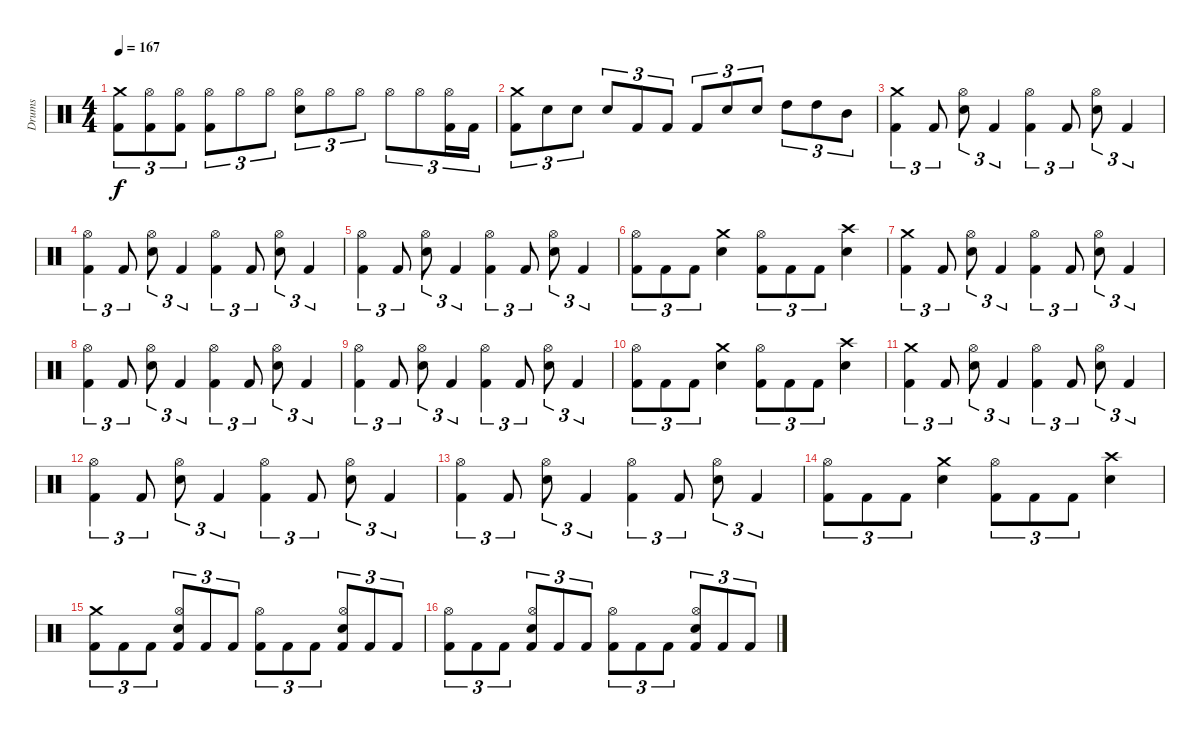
\track ("Drums" "Drums") {instrument percussion}
\staff {score}
\articulation defaults
\ts (4 4)
\tempo 167
\clef neutral
\ks c
("Kick (hit) 2" "Crash medium (hit)").8{tu (3 2) dy f} ("Kick (hit) 2" "Hi-Hat (open)").8{tu (3 2)} ("Kick (hit) 2" "Hi-Hat (open)").8{tu (3 2)} ("Kick (hit) 2" "Hi-Hat (open)").8{tu (3 2)} "Hi-Hat (open)".8{tu (3 2)} "Hi-Hat (open)".8{tu (3 2)} ("Electric Snare (hit)" "Hi-Hat (open)").8{tu (3 2)} "Hi-Hat (open)".8{tu (3 2)} "Hi-Hat (open)".8{tu (3 2)} "Hi-Hat (open)".8{tu (3 2)} "Hi-Hat (open)".8{tu (3 2)} ("Kick (hit) 2" "Hi-Hat (open)").16{tu (3 2)} "Kick (hit) 2".16{tu (3 2)} |
("Kick (hit) 2" "Crash medium (hit)").8{tu (3 2)} "Electric Snare (hit)".8{tu (3 2)} "Electric Snare (hit)".8{tu (3 2)} "Electric Snare (hit)".8{tu (3 2)} "Kick (hit) 2".8{tu (3 2)} "Kick (hit) 2".8{tu (3 2)} "Kick (hit) 2".8{tu (3 2)} "Electric Snare (hit)".8{tu (3 2)} "Electric Snare (hit)".8{tu (3 2)} "High Tom (hit)".8{tu (3 2)} "High Tom (hit)".8{tu (3 2)} "Mid Tom (hit)".8{tu (3 2)} |
("Kick (hit) 2" "Crash medium (hit)").4{tu (3 2)} "Kick (hit) 2".8{tu (3 2)} ("Electric Snare (hit)" "Hi-Hat (open)").8{tu (3 2)} "Kick (hit) 2".4{tu (3 2)} ("Kick (hit) 2" "Hi-Hat (open)").4{tu (3 2)} "Kick (hit) 2".8{tu (3 2)} ("Electric Snare (hit)" "Hi-Hat (open)").8{tu (3 2)} "Kick (hit) 2".4{tu (3 2)} |
("Kick (hit) 2" "Hi-Hat (open)").4{tu (3 2)} "Kick (hit) 2".8{tu (3 2)} ("Electric Snare (hit)" "Hi-Hat (open)").8{tu (3 2)} "Kick (hit) 2".4{tu (3 2)} ("Kick (hit) 2" "Hi-Hat (open)").4{tu (3 2)} "Kick (hit) 2".8{tu (3 2)} ("Electric Snare (hit)" "Hi-Hat (open)").8{tu (3 2)} "Kick (hit) 2".4{tu (3 2)} |
("Kick (hit) 2" "Hi-Hat (open)").4{tu (3 2)} "Kick (hit) 2".8{tu (3 2)} ("Electric Snare (hit)" "Hi-Hat (open)").8{tu (3 2)} "Kick (hit) 2".4{tu (3 2)} ("Kick (hit) 2" "Hi-Hat (open)").4{tu (3 2)} "Kick (hit) 2".8{tu (3 2)} ("Electric Snare (hit)" "Hi-Hat (open)").8{tu (3 2)} "Kick (hit) 2".4{tu (3 2)} |
("Kick (hit) 2" "Hi-Hat (open)").8{tu (3 2)} "Kick (hit) 2".8{tu (3 2)} "Kick (hit) 2".8{tu (3 2)} ("Electric Snare (hit)" "Crash medium (hit)").4 ("Kick (hit) 2" "Hi-Hat (open)").8{tu (3 2)} "Kick (hit) 2".8{tu (3 2)} "Kick (hit) 2".8{tu (3 2)} ("Electric Snare (hit)" "Crash high (hit)").4 |
("Kick (hit) 2" "Crash medium (hit)").4{tu (3 2)} "Kick (hit) 2".8{tu (3 2)} ("Electric Snare (hit)" "Hi-Hat (open)").8{tu (3 2)} "Kick (hit) 2".4{tu (3 2)} ("Kick (hit) 2" "Hi-Hat (open)").4{tu (3 2)} "Kick (hit) 2".8{tu (3 2)} ("Electric Snare (hit)" "Hi-Hat (open)").8{tu (3 2)} "Kick (hit) 2".4{tu (3 2)} |
("Kick (hit) 2" "Hi-Hat (open)").4{tu (3 2)} "Kick (hit) 2".8{tu (3 2)} ("Electric Snare (hit)" "Hi-Hat (open)").8{tu (3 2)} "Kick (hit) 2".4{tu (3 2)} ("Kick (hit) 2" "Hi-Hat (open)").4{tu (3 2)} "Kick (hit) 2".8{tu (3 2)} ("Electric Snare (hit)" "Hi-Hat (open)").8{tu (3 2)} "Kick (hit) 2".4{tu (3 2)} |
("Kick (hit) 2" "Hi-Hat (open)").4{tu (3 2)} "Kick (hit) 2".8{tu (3 2)} ("Electric Snare (hit)" "Hi-Hat (open)").8{tu (3 2)} "Kick (hit) 2".4{tu (3 2)} ("Kick (hit) 2" "Hi-Hat (open)").4{tu (3 2)} "Kick (hit) 2".8{tu (3 2)} ("Electric Snare (hit)" "Hi-Hat (open)").8{tu (3 2)} "Kick (hit) 2".4{tu (3 2)} |
("Kick (hit) 2" "Hi-Hat (open)").8{tu (3 2)} "Kick (hit) 2".8{tu (3 2)} "Kick (hit) 2".8{tu (3 2)} ("Electric Snare (hit)" "Crash medium (hit)").4 ("Kick (hit) 2" "Hi-Hat (open)").8{tu (3 2)} "Kick (hit) 2".8{tu (3 2)} "Kick (hit) 2".8{tu (3 2)} ("Electric Snare (hit)" "Crash high (hit)").4 |
("Kick (hit) 2" "Crash medium (hit)").4{tu (3 2)} "Kick (hit) 2".8{tu (3 2)} ("Electric Snare (hit)" "Hi-Hat (open)").8{tu (3 2)} "Kick (hit) 2".4{tu (3 2)} ("Kick (hit) 2" "Hi-Hat (open)").4{tu (3 2)} "Kick (hit) 2".8{tu (3 2)} ("Electric Snare (hit)" "Hi-Hat (open)").8{tu (3 2)} "Kick (hit) 2".4{tu (3 2)} |
("Kick (hit) 2" "Hi-Hat (open)").4{tu (3 2)} "Kick (hit) 2".8{tu (3 2)} ("Electric Snare (hit)" "Hi-Hat (open)").8{tu (3 2)} "Kick (hit) 2".4{tu (3 2)} ("Kick (hit) 2" "Hi-Hat (open)").4{tu (3 2)} "Kick (hit) 2".8{tu (3 2)} ("Electric Snare (hit)" "Hi-Hat (open)").8{tu (3 2)} "Kick (hit) 2".4{tu (3 2)} |
("Kick (hit) 2" "Hi-Hat (open)").4{tu (3 2)} "Kick (hit) 2".8{tu (3 2)} ("Electric Snare (hit)" "Hi-Hat (open)").8{tu (3 2)} "Kick (hit) 2".4{tu (3 2)} ("Kick (hit) 2" "Hi-Hat (open)").4{tu (3 2)} "Kick (hit) 2".8{tu (3 2)} ("Electric Snare (hit)" "Hi-Hat (open)").8{tu (3 2)} "Kick (hit) 2".4{tu (3 2)} |
("Kick (hit) 2" "Hi-Hat (open)").8{tu (3 2)} "Kick (hit) 2".8{tu (3 2)} "Kick (hit) 2".8{tu (3 2)} ("Electric Snare (hit)" "Crash medium (hit)").4 ("Kick (hit) 2" "Hi-Hat (open)").8{tu (3 2)} "Kick (hit) 2".8{tu (3 2)} "Kick (hit) 2".8{tu (3 2)} ("Electric Snare (hit)" "Crash high (hit)").4 |
("Kick (hit) 2" "Crash medium (hit)").8{tu (3 2)} "Kick (hit) 2".8{tu (3 2)} "Kick (hit) 2".8{tu (3 2)} ("Kick (hit) 2" "Electric Snare (hit)" "Hi-Hat (open)").8{tu (3 2)} "Kick (hit) 2".8{tu (3 2)} "Kick (hit) 2".8{tu (3 2)} ("Kick (hit) 2" "Hi-Hat (open)").8{tu (3 2)} "Kick (hit) 2".8{tu (3 2)} "Kick (hit) 2".8{tu (3 2)} ("Kick (hit) 2" "Electric Snare (hit)" "Hi-Hat (open)").8{tu (3 2)} "Kick (hit) 2".8{tu (3 2)} "Kick (hit) 2".8{tu (3 2)} |
("Kick (hit) 2" "Hi-Hat (open)").8{tu (3 2)} "Kick (hit) 2".8{tu (3 2)} "Kick (hit) 2".8{tu (3 2)} ("Kick (hit) 2" "Electric Snare (hit)" "Hi-Hat (open)").8{tu (3 2)} "Kick (hit) 2".8{tu (3 2)} "Kick (hit) 2".8{tu (3 2)} ("Kick (hit) 2" "Hi-Hat (open)").8{tu (3 2)} "Kick (hit) 2".8{tu (3 2)} "Kick (hit) 2".8{tu (3 2)} ("Kick (hit) 2" "Electric Snare (hit)" "Hi-Hat (open)").8{tu (3 2)} "Kick (hit) 2".8{tu (3 2)} "Kick (hit) 2".8{tu (3 2)}
